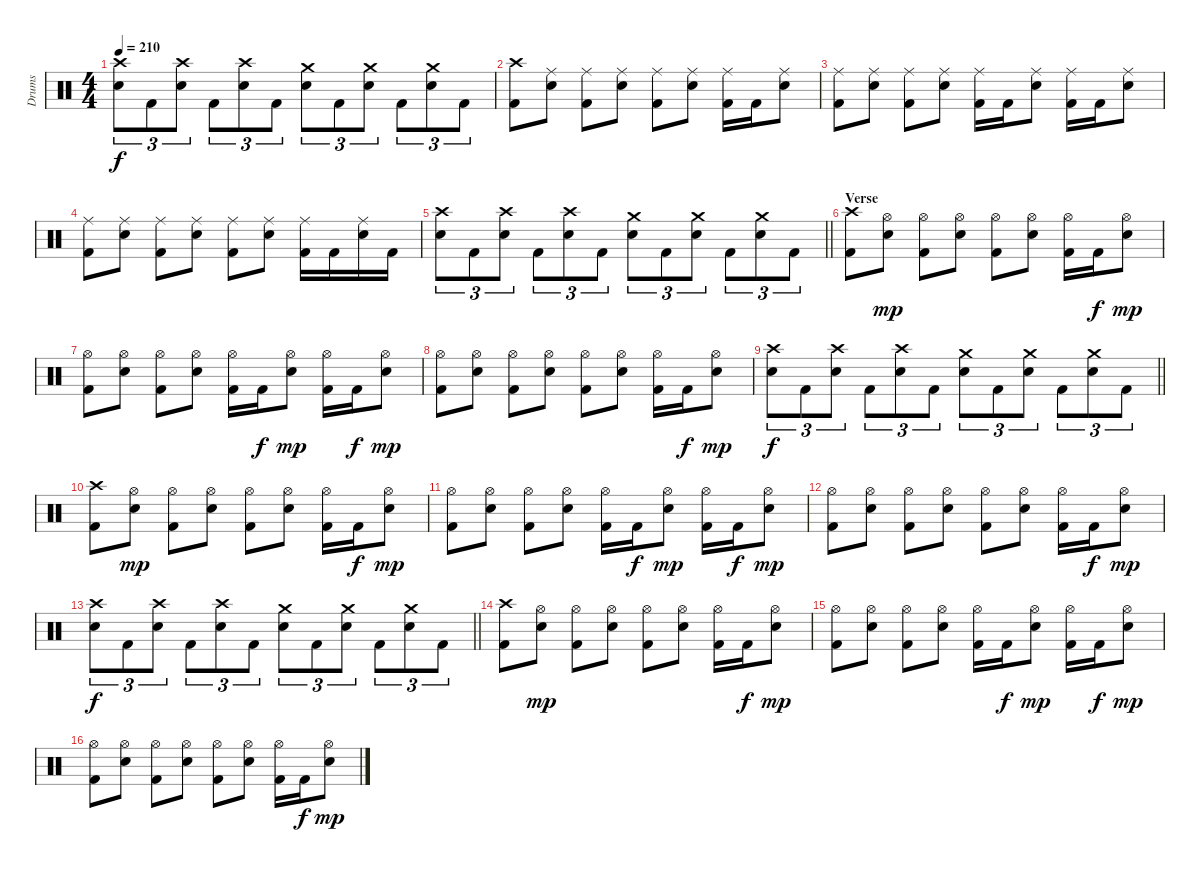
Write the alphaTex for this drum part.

\track ("Drums" "Drums") {instrument percussion}
\staff {score}
\articulation defaults
\ts (4 4)
\tempo 210
\clef neutral
\ks c
("Crash high (hit)" "Snare (hit) 2").8{tu (3 2) dy f} "Kick (hit) 2".8{tu (3 2)} ("Crash high (hit)" "Snare (hit) 2").8{tu (3 2)} "Kick (hit) 2".8{tu (3 2)} ("Crash high (hit)" "Snare (hit) 2").8{tu (3 2)} "Kick (hit) 2".8{tu (3 2)} ("Crash medium (hit)" "Snare (hit) 2").8{tu (3 2)} "Kick (hit) 2".8{tu (3 2)} ("Crash medium (hit)" "Snare (hit) 2").8{tu (3 2)} "Kick (hit) 2".8{tu (3 2)} ("Crash medium (hit)" "Snare (hit) 2").8{tu (3 2)} "Kick (hit) 2".8{tu (3 2)} |
("Crash high (hit)" "Kick (hit) 2").8 ("Ride (middle)" "Snare (hit) 2").8 ("Ride (middle)" "Kick (hit) 2").8 ("Ride (middle)" "Snare (hit) 2").8 ("Ride (middle)" "Kick (hit) 2").8 ("Ride (middle)" "Snare (hit) 2").8 ("Ride (middle)" "Kick (hit) 2").16 "Kick (hit) 2".16 ("Ride (middle)" "Snare (hit) 2").8 |
("Ride (middle)" "Kick (hit) 2").8 ("Ride (middle)" "Snare (hit) 2").8 ("Ride (middle)" "Kick (hit) 2").8 ("Ride (middle)" "Snare (hit) 2").8 ("Ride (middle)" "Kick (hit) 2").16 "Kick (hit) 2".16 ("Ride (middle)" "Snare (hit) 2").8 ("Ride (middle)" "Kick (hit) 2").16 "Kick (hit) 2".16 ("Ride (middle)" "Snare (hit) 2").8 |
("Ride (middle)" "Kick (hit) 2").8 ("Ride (middle)" "Snare (hit) 2").8 ("Ride (middle)" "Kick (hit) 2").8 ("Ride (middle)" "Snare (hit) 2").8 ("Ride (middle)" "Kick (hit) 2").8 ("Ride (middle)" "Snare (hit) 2").8 ("Ride (middle)" "Kick (hit) 2").16 "Kick (hit) 2".16 ("Ride (middle)" "Snare (hit) 2").16 "Kick (hit) 2".16 |
\barLineRight lightlight
("Crash high (hit)" "Snare (hit) 2").8{tu (3 2)} "Kick (hit) 2".8{tu (3 2)} ("Crash high (hit)" "Snare (hit) 2").8{tu (3 2)} "Kick (hit) 2".8{tu (3 2)} ("Crash high (hit)" "Snare (hit) 2").8{tu (3 2)} "Kick (hit) 2".8{tu (3 2)} ("Crash medium (hit)" "Snare (hit) 2").8{tu (3 2)} "Kick (hit) 2".8{tu (3 2)} ("Crash medium (hit)" "Snare (hit) 2").8{tu (3 2)} "Kick (hit) 2".8{tu (3 2)} ("Crash medium (hit)" "Snare (hit) 2").8{tu (3 2)} "Kick (hit) 2".8{tu (3 2)} |
\section ("" "Verse")
("Crash high (hit)" "Kick (hit) 2").8 ("Hi-Hat (open)" "Snare (hit) 2").8{dy mp} ("Hi-Hat (open)" "Kick (hit) 2").8 ("Hi-Hat (open)" "Snare (hit) 2").8 ("Hi-Hat (open)" "Kick (hit) 2").8 ("Hi-Hat (open)" "Snare (hit) 2").8 ("Hi-Hat (open)" "Kick (hit) 2").16 "Kick (hit) 2".16{dy f} ("Hi-Hat (open)" "Snare (hit) 2").8{dy mp} |
("Hi-Hat (open)" "Kick (hit) 2").8 ("Hi-Hat (open)" "Snare (hit) 2").8 ("Hi-Hat (open)" "Kick (hit) 2").8 ("Hi-Hat (open)" "Snare (hit) 2").8 ("Hi-Hat (open)" "Kick (hit) 2").16 "Kick (hit) 2".16{dy f} ("Hi-Hat (open)" "Snare (hit) 2").8{dy mp} ("Hi-Hat (open)" "Kick (hit) 2").16 "Kick (hit) 2".16{dy f} ("Hi-Hat (open)" "Snare (hit) 2").8{dy mp} |
("Hi-Hat (open)" "Kick (hit) 2").8 ("Hi-Hat (open)" "Snare (hit) 2").8 ("Hi-Hat (open)" "Kick (hit) 2").8 ("Hi-Hat (open)" "Snare (hit) 2").8 ("Hi-Hat (open)" "Kick (hit) 2").8 ("Hi-Hat (open)" "Snare (hit) 2").8 ("Hi-Hat (open)" "Kick (hit) 2").16 "Kick (hit) 2".16{dy f} ("Hi-Hat (open)" "Snare (hit) 2").8{dy mp} |
\barLineRight lightlight
("Crash high (hit)" "Snare (hit) 2").8{tu (3 2) dy f} "Kick (hit) 2".8{tu (3 2)} ("Crash high (hit)" "Snare (hit) 2").8{tu (3 2)} "Kick (hit) 2".8{tu (3 2)} ("Crash high (hit)" "Snare (hit) 2").8{tu (3 2)} "Kick (hit) 2".8{tu (3 2)} ("Crash medium (hit)" "Snare (hit) 2").8{tu (3 2)} "Kick (hit) 2".8{tu (3 2)} ("Crash medium (hit)" "Snare (hit) 2").8{tu (3 2)} "Kick (hit) 2".8{tu (3 2)} ("Crash medium (hit)" "Snare (hit) 2").8{tu (3 2)} "Kick (hit) 2".8{tu (3 2)} |
("Crash high (hit)" "Kick (hit) 2").8 ("Hi-Hat (open)" "Snare (hit) 2").8{dy mp} ("Hi-Hat (open)" "Kick (hit) 2").8 ("Hi-Hat (open)" "Snare (hit) 2").8 ("Hi-Hat (open)" "Kick (hit) 2").8 ("Hi-Hat (open)" "Snare (hit) 2").8 ("Hi-Hat (open)" "Kick (hit) 2").16 "Kick (hit) 2".16{dy f} ("Hi-Hat (open)" "Snare (hit) 2").8{dy mp} |
("Hi-Hat (open)" "Kick (hit) 2").8 ("Hi-Hat (open)" "Snare (hit) 2").8 ("Hi-Hat (open)" "Kick (hit) 2").8 ("Hi-Hat (open)" "Snare (hit) 2").8 ("Hi-Hat (open)" "Kick (hit) 2").16 "Kick (hit) 2".16{dy f} ("Hi-Hat (open)" "Snare (hit) 2").8{dy mp} ("Hi-Hat (open)" "Kick (hit) 2").16 "Kick (hit) 2".16{dy f} ("Hi-Hat (open)" "Snare (hit) 2").8{dy mp} |
("Hi-Hat (open)" "Kick (hit) 2").8 ("Hi-Hat (open)" "Snare (hit) 2").8 ("Hi-Hat (open)" "Kick (hit) 2").8 ("Hi-Hat (open)" "Snare (hit) 2").8 ("Hi-Hat (open)" "Kick (hit) 2").8 ("Hi-Hat (open)" "Snare (hit) 2").8 ("Hi-Hat (open)" "Kick (hit) 2").16 "Kick (hit) 2".16{dy f} ("Hi-Hat (open)" "Snare (hit) 2").8{dy mp} |
\barLineRight lightlight
("Crash high (hit)" "Snare (hit) 2").8{tu (3 2) dy f} "Kick (hit) 2".8{tu (3 2)} ("Crash high (hit)" "Snare (hit) 2").8{tu (3 2)} "Kick (hit) 2".8{tu (3 2)} ("Crash high (hit)" "Snare (hit) 2").8{tu (3 2)} "Kick (hit) 2".8{tu (3 2)} ("Crash medium (hit)" "Snare (hit) 2").8{tu (3 2)} "Kick (hit) 2".8{tu (3 2)} ("Crash medium (hit)" "Snare (hit) 2").8{tu (3 2)} "Kick (hit) 2".8{tu (3 2)} ("Crash medium (hit)" "Snare (hit) 2").8{tu (3 2)} "Kick (hit) 2".8{tu (3 2)} |
("Crash high (hit)" "Kick (hit) 2").8 ("Hi-Hat (open)" "Snare (hit) 2").8{dy mp} ("Hi-Hat (open)" "Kick (hit) 2").8 ("Hi-Hat (open)" "Snare (hit) 2").8 ("Hi-Hat (open)" "Kick (hit) 2").8 ("Hi-Hat (open)" "Snare (hit) 2").8 ("Hi-Hat (open)" "Kick (hit) 2").16 "Kick (hit) 2".16{dy f} ("Hi-Hat (open)" "Snare (hit) 2").8{dy mp} |
("Hi-Hat (open)" "Kick (hit) 2").8 ("Hi-Hat (open)" "Snare (hit) 2").8 ("Hi-Hat (open)" "Kick (hit) 2").8 ("Hi-Hat (open)" "Snare (hit) 2").8 ("Hi-Hat (open)" "Kick (hit) 2").16 "Kick (hit) 2".16{dy f} ("Hi-Hat (open)" "Snare (hit) 2").8{dy mp} ("Hi-Hat (open)" "Kick (hit) 2").16 "Kick (hit) 2".16{dy f} ("Hi-Hat (open)" "Snare (hit) 2").8{dy mp} |
("Hi-Hat (open)" "Kick (hit) 2").8 ("Hi-Hat (open)" "Snare (hit) 2").8 ("Hi-Hat (open)" "Kick (hit) 2").8 ("Hi-Hat (open)" "Snare (hit) 2").8 ("Hi-Hat (open)" "Kick (hit) 2").8 ("Hi-Hat (open)" "Snare (hit) 2").8 ("Hi-Hat (open)" "Kick (hit) 2").16 "Kick (hit) 2".16{dy f} ("Hi-Hat (open)" "Snare (hit) 2").8{dy mp}
